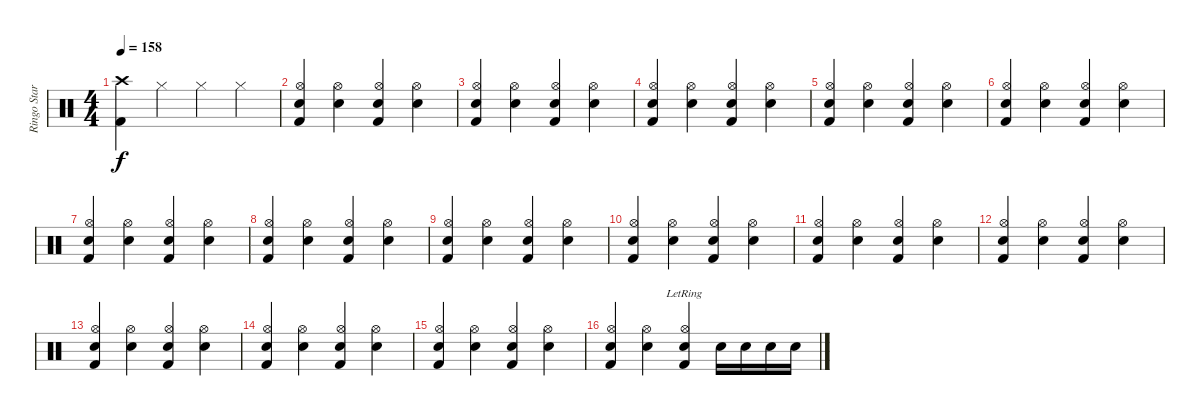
\track ("Ringo Star" "Ringo Star") {instrument percussion}
\staff {score}
\articulation defaults
\ts (4 4)
\tempo 158
\clef neutral
\ks c
("Crash high (hit)" "Kick (hit) 2").4{dy f} "Hi-Hat (closed)".4 "Hi-Hat (closed)".4 "Hi-Hat (closed)".4 |
("Hi-Hat (open)" "Snare (hit) 2" "Kick (hit) 2").4 ("Hi-Hat (open)" "Snare (hit) 2").4 ("Hi-Hat (open)" "Snare (hit) 2" "Kick (hit) 2").4 ("Hi-Hat (open)" "Snare (hit) 2").4 |
("Hi-Hat (open)" "Snare (hit) 2" "Kick (hit) 2").4 ("Hi-Hat (open)" "Snare (hit) 2").4 ("Hi-Hat (open)" "Snare (hit) 2" "Kick (hit) 2").4 ("Hi-Hat (open)" "Snare (hit) 2").4 |
("Hi-Hat (open)" "Snare (hit) 2" "Kick (hit) 2").4 ("Hi-Hat (open)" "Snare (hit) 2").4 ("Hi-Hat (open)" "Snare (hit) 2" "Kick (hit) 2").4 ("Hi-Hat (open)" "Snare (hit) 2").4 |
("Hi-Hat (open)" "Snare (hit) 2" "Kick (hit) 2").4 ("Hi-Hat (open)" "Snare (hit) 2").4 ("Hi-Hat (open)" "Snare (hit) 2" "Kick (hit) 2").4 ("Hi-Hat (open)" "Snare (hit) 2").4 |
("Hi-Hat (open)" "Snare (hit) 2" "Kick (hit) 2").4 ("Hi-Hat (open)" "Snare (hit) 2").4 ("Hi-Hat (open)" "Snare (hit) 2" "Kick (hit) 2").4 ("Hi-Hat (open)" "Snare (hit) 2").4 |
("Hi-Hat (open)" "Snare (hit) 2" "Kick (hit) 2").4 ("Hi-Hat (open)" "Snare (hit) 2").4 ("Hi-Hat (open)" "Snare (hit) 2" "Kick (hit) 2").4 ("Hi-Hat (open)" "Snare (hit) 2").4 |
("Hi-Hat (open)" "Snare (hit) 2" "Kick (hit) 2").4 ("Hi-Hat (open)" "Snare (hit) 2").4 ("Hi-Hat (open)" "Snare (hit) 2" "Kick (hit) 2").4 ("Hi-Hat (open)" "Snare (hit) 2").4 |
("Hi-Hat (open)" "Snare (hit) 2" "Kick (hit) 2").4 ("Hi-Hat (open)" "Snare (hit) 2").4 ("Hi-Hat (open)" "Snare (hit) 2" "Kick (hit) 2").4 ("Hi-Hat (open)" "Snare (hit) 2").4 |
("Hi-Hat (open)" "Snare (hit) 2" "Kick (hit) 2").4 ("Hi-Hat (open)" "Snare (hit) 2").4 ("Hi-Hat (open)" "Snare (hit) 2" "Kick (hit) 2").4 ("Hi-Hat (open)" "Snare (hit) 2").4 |
("Hi-Hat (open)" "Snare (hit) 2" "Kick (hit) 2").4 ("Hi-Hat (open)" "Snare (hit) 2").4 ("Hi-Hat (open)" "Snare (hit) 2" "Kick (hit) 2").4 ("Hi-Hat (open)" "Snare (hit) 2").4 |
("Hi-Hat (open)" "Snare (hit) 2" "Kick (hit) 2").4 ("Hi-Hat (open)" "Snare (hit) 2").4 ("Hi-Hat (open)" "Snare (hit) 2" "Kick (hit) 2").4 ("Hi-Hat (open)" "Snare (hit) 2").4 |
("Hi-Hat (open)" "Snare (hit) 2" "Kick (hit) 2").4 ("Hi-Hat (open)" "Snare (hit) 2").4 ("Hi-Hat (open)" "Snare (hit) 2" "Kick (hit) 2").4 ("Hi-Hat (open)" "Snare (hit) 2").4 |
("Hi-Hat (open)" "Snare (hit) 2" "Kick (hit) 2").4 ("Hi-Hat (open)" "Snare (hit) 2").4 ("Hi-Hat (open)" "Snare (hit) 2" "Kick (hit) 2").4 ("Hi-Hat (open)" "Snare (hit) 2").4 |
("Hi-Hat (open)" "Snare (hit) 2" "Kick (hit) 2").4 ("Hi-Hat (open)" "Snare (hit) 2").4 ("Hi-Hat (open)" "Snare (hit) 2" "Kick (hit) 2").4 ("Hi-Hat (open)" "Snare (hit) 2").4 |
("Hi-Hat (open)" "Snare (hit) 2" "Kick (hit) 2").4 ("Hi-Hat (open)" "Snare (hit) 2").4 ("Hi-Hat (open)"{lr} "Snare (hit) 2" "Kick (hit) 2").4 "Snare (hit) 2".16 "Snare (hit) 2".16 "Snare (hit) 2".16 "Snare (hit) 2".16
